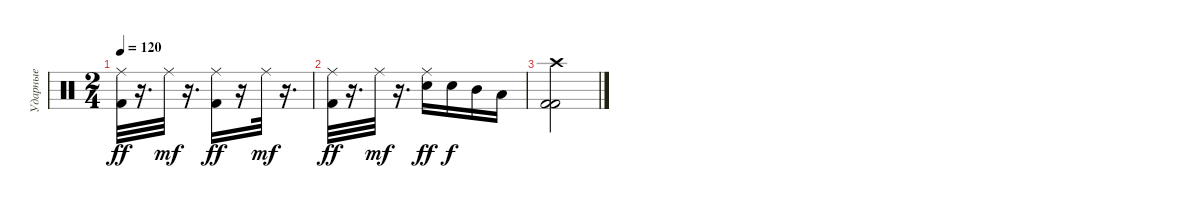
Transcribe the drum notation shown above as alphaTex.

\track ("Ударные" "Ударные") {instrument percussion}
\staff {score}
\articulation defaults
\ts (2 4)
\tempo 120
\clef neutral
\ks c
("Ride (middle)" "Kick (hit) 2").32{dy ff} r.16{d} "Ride (middle)".32{dy mf} r.16{d} ("Ride (middle)" "Kick (hit) 2").16{dy ff} r.16 "Ride (middle)".32{dy mf} r.16{d} |
("Ride (middle)" "Kick (hit) 2").32{dy ff} r.16{d} "Ride (middle)".32{dy mf} r.16{d} ("Ride (middle)" "Electric Snare (hit)").16{dy ff} "Electric Snare (hit)".16{dy f} "Mid Tom (hit)".16 "Low Tom (hit)".16 |
("Crash high (hit)" "Kick (hit) 2" "Kick (hit) 2").2
